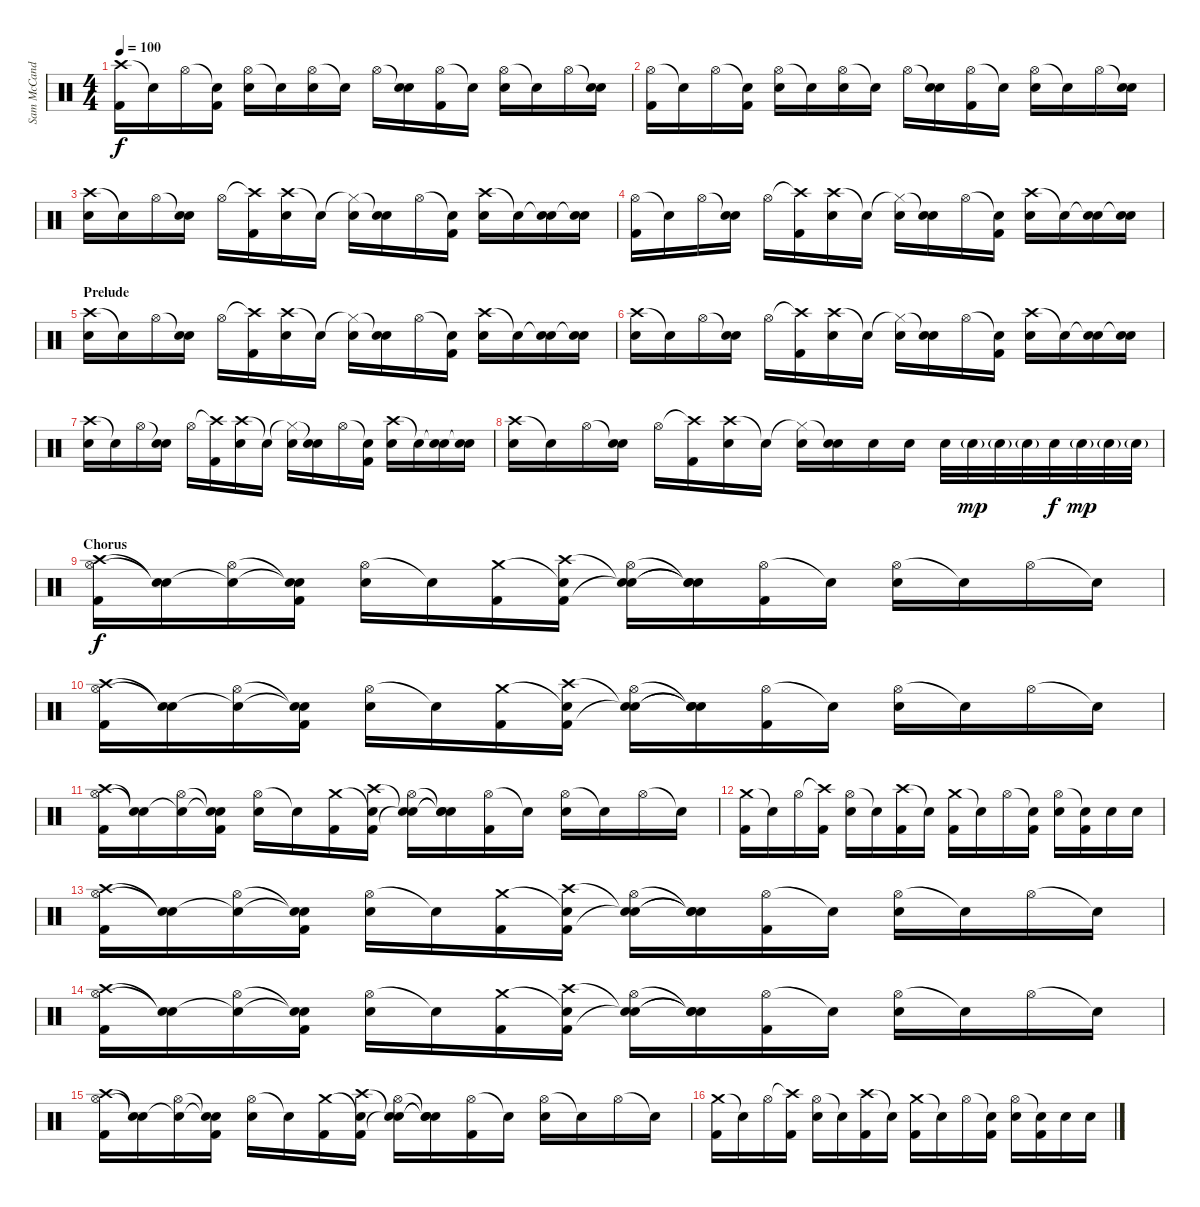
\track ("Sam McCandless (Drums)" "Sam McCand") {instrument percussion}
\staff {score}
\articulation defaults
\ts (4 4)
\tempo 100
\clef neutral
\ks c
("Crash high (hit)" "Kick (hit) 2").16{dy f} "Snare (hit)"{t}.16 "Hi-Hat (open)".16 ("Snare (hit)"{t} "Kick (hit) 2").16 ("Hi-Hat (open)" "Electric Snare (hit)").16 "Snare (hit)"{t}.16 ("Hi-Hat (open)" "Electric Snare (hit)").16 "Snare (hit)"{t}.16 "Hi-Hat (open)".16 ("Snare (hit)"{t} "Electric Snare (hit)").16 ("Hi-Hat (open)" "Kick (hit) 2").16 "Snare (hit)"{t}.16 ("Hi-Hat (open)" "Electric Snare (hit)").16 "Snare (hit)"{t}.16 "Hi-Hat (open)".16 ("Snare (hit)"{t} "Electric Snare (hit)").16 |
("Hi-Hat (open)" "Kick (hit) 2").16 "Snare (hit)"{t}.16 "Hi-Hat (open)".16 ("Snare (hit)"{t} "Kick (hit) 2").16 ("Hi-Hat (open)" "Electric Snare (hit)").16 "Snare (hit)"{t}.16 ("Hi-Hat (open)" "Electric Snare (hit)").16 "Snare (hit)"{t}.16 "Hi-Hat (open)".16 ("Snare (hit)"{t} "Electric Snare (hit)").16 ("Hi-Hat (open)" "Kick (hit) 2").16 "Snare (hit)"{t}.16 ("Hi-Hat (open)" "Electric Snare (hit)").16 "Snare (hit)"{t}.16 "Hi-Hat (open)".16 ("Snare (hit)"{t} "Electric Snare (hit)").16 |
("Crash high (hit)" "Electric Snare (hit)").16 "Snare (hit)"{t}.16 "Hi-Hat (open)".16 ("Snare (hit)"{t} "Electric Snare (hit)").16 "Hi-Hat (open)".16 ("Crash high (hit)"{t} "Kick (hit) 2").16 ("Crash high (hit)" "Electric Snare (hit)").16 "Snare (hit)"{t}.16 ("Hi-Hat (closed)"{t} "Electric Snare (hit)").16 ("Snare (hit)"{t} "Electric Snare (hit)").16 "Hi-Hat (open)".16 ("Snare (hit)"{t} "Kick (hit) 2").16 ("Crash high (hit)" "Electric Snare (hit)").16 "Snare (hit)"{t}.16 ("Snare (hit)"{t} "Electric Snare (hit)").16 ("Snare (hit)"{t} "Electric Snare (hit)").16 |
("Hi-Hat (open)" "Kick (hit) 2").16 "Snare (hit)"{t}.16 "Hi-Hat (open)".16 ("Snare (hit)"{t} "Electric Snare (hit)").16 "Hi-Hat (open)".16 ("Crash high (hit)"{t} "Kick (hit) 2").16 ("Crash high (hit)" "Electric Snare (hit)").16 "Snare (hit)"{t}.16 ("Hi-Hat (closed)"{t} "Electric Snare (hit)").16 ("Snare (hit)"{t} "Electric Snare (hit)").16 "Hi-Hat (open)".16 ("Snare (hit)"{t} "Kick (hit) 2").16 ("Crash high (hit)" "Electric Snare (hit)").16 "Snare (hit)"{t}.16 ("Snare (hit)"{t} "Electric Snare (hit)").16 ("Snare (hit)"{t} "Electric Snare (hit)").16 |
\section ("" "Prelude")
("Crash high (hit)" "Electric Snare (hit)").16 "Snare (hit)"{t}.16 "Hi-Hat (open)".16 ("Snare (hit)"{t} "Electric Snare (hit)").16 "Hi-Hat (open)".16 ("Crash high (hit)"{t} "Kick (hit) 2").16 ("Crash high (hit)" "Electric Snare (hit)").16 "Snare (hit)"{t}.16 ("Hi-Hat (closed)"{t} "Electric Snare (hit)").16 ("Snare (hit)"{t} "Electric Snare (hit)").16 "Hi-Hat (open)".16 ("Snare (hit)"{t} "Kick (hit) 2").16 ("Crash high (hit)" "Electric Snare (hit)").16 "Snare (hit)"{t}.16 ("Snare (hit)"{t} "Electric Snare (hit)").16 ("Snare (hit)"{t} "Electric Snare (hit)").16 |
("Crash high (hit)" "Electric Snare (hit)").16 "Snare (hit)"{t}.16 "Hi-Hat (open)".16 ("Snare (hit)"{t} "Electric Snare (hit)").16 "Hi-Hat (open)".16 ("Crash high (hit)"{t} "Kick (hit) 2").16 ("Crash high (hit)" "Electric Snare (hit)").16 "Snare (hit)"{t}.16 ("Hi-Hat (closed)"{t} "Electric Snare (hit)").16 ("Snare (hit)"{t} "Electric Snare (hit)").16 "Hi-Hat (open)".16 ("Snare (hit)"{t} "Kick (hit) 2").16 ("Crash high (hit)" "Electric Snare (hit)").16 "Snare (hit)"{t}.16 ("Snare (hit)"{t} "Electric Snare (hit)").16 ("Snare (hit)"{t} "Electric Snare (hit)").16 |
("Crash high (hit)" "Electric Snare (hit)").16 "Snare (hit)"{t}.16 "Hi-Hat (open)".16 ("Snare (hit)"{t} "Electric Snare (hit)").16 "Hi-Hat (open)".16 ("Crash high (hit)"{t} "Kick (hit) 2").16 ("Crash high (hit)" "Electric Snare (hit)").16 "Snare (hit)"{t}.16 ("Hi-Hat (closed)"{t} "Electric Snare (hit)").16 ("Snare (hit)"{t} "Electric Snare (hit)").16 "Hi-Hat (open)".16 ("Snare (hit)"{t} "Kick (hit) 2").16 ("Crash high (hit)" "Electric Snare (hit)").16 "Snare (hit)"{t}.16 ("Snare (hit)"{t} "Electric Snare (hit)").16 ("Snare (hit)"{t} "Electric Snare (hit)").16 |
("Crash high (hit)" "Electric Snare (hit)").16 "Snare (hit)"{t}.16 "Hi-Hat (open)".16 ("Snare (hit)"{t} "Electric Snare (hit)").16 "Hi-Hat (open)".16 ("Crash high (hit)"{t} "Kick (hit) 2").16 ("Crash high (hit)" "Electric Snare (hit)").16 "Snare (hit)"{t}.16 ("Hi-Hat (closed)"{t} "Electric Snare (hit)").16 ("Snare (hit)"{t} "Electric Snare (hit)").16 "Electric Snare (hit)".16 "Electric Snare (hit)".16 "Electric Snare (hit)".32 "Electric Snare (hit)"{g}.32{dy mp} "Electric Snare (hit)"{g}.32 "Electric Snare (hit)"{g}.32 "Electric Snare (hit)".32{dy f} "Electric Snare (hit)"{g}.32{dy mp} "Electric Snare (hit)"{g}.32 "Electric Snare (hit)"{g}.32 |
\section ("" "Chorus")
("Hi-Hat (open)" "Crash high (hit)" "Kick (hit) 2").16{dy f} ("Snare (hit)"{t} "Snare (hit)"{t}).16 ("Hi-Hat (open)" "Snare (hit)"{t}).16 ("Snare (hit)"{t} "Snare (hit)"{t} "Kick (hit) 2").16 ("Hi-Hat (open)" "Electric Snare (hit)").16 "Snare (hit)"{t}.16 ("Crash medium (hit)" "Kick (hit) 2").16 ("Snare (hit)"{t} "Crash high (hit)" "Kick (hit) 2").16 ("Hi-Hat (open)" "Snare (hit)"{t} "Snare (hit)"{t}).16 ("Snare (hit)"{t} "Snare (hit)"{t} "Snare (hit)"{t}).16 ("Hi-Hat (open)" "Kick (hit) 2").16 "Snare (hit)"{t}.16 ("Hi-Hat (open)" "Electric Snare (hit)").16 "Snare (hit)"{t}.16 "Hi-Hat (open)".16 "Snare (hit)"{t}.16 |
("Hi-Hat (open)" "Crash high (hit)" "Kick (hit) 2").16 ("Snare (hit)"{t} "Snare (hit)"{t}).16 ("Hi-Hat (open)" "Snare (hit)"{t}).16 ("Snare (hit)"{t} "Snare (hit)"{t} "Kick (hit) 2").16 ("Hi-Hat (open)" "Electric Snare (hit)").16 "Snare (hit)"{t}.16 ("Crash medium (hit)" "Kick (hit) 2").16 ("Snare (hit)"{t} "Crash high (hit)" "Kick (hit) 2").16 ("Hi-Hat (open)" "Snare (hit)"{t} "Snare (hit)"{t}).16 ("Snare (hit)"{t} "Snare (hit)"{t} "Snare (hit)"{t}).16 ("Hi-Hat (open)" "Kick (hit) 2").16 "Snare (hit)"{t}.16 ("Hi-Hat (open)" "Electric Snare (hit)").16 "Snare (hit)"{t}.16 "Hi-Hat (open)".16 "Snare (hit)"{t}.16 |
("Hi-Hat (open)" "Crash high (hit)" "Kick (hit) 2").16 ("Snare (hit)"{t} "Snare (hit)"{t}).16 ("Hi-Hat (open)" "Snare (hit)"{t}).16 ("Snare (hit)"{t} "Snare (hit)"{t} "Kick (hit) 2").16 ("Hi-Hat (open)" "Electric Snare (hit)").16 "Snare (hit)"{t}.16 ("Crash medium (hit)" "Kick (hit) 2").16 ("Snare (hit)"{t} "Crash high (hit)" "Kick (hit) 2").16 ("Hi-Hat (open)" "Snare (hit)"{t} "Snare (hit)"{t}).16 ("Snare (hit)"{t} "Snare (hit)"{t} "Snare (hit)"{t}).16 ("Hi-Hat (open)" "Kick (hit) 2").16 "Snare (hit)"{t}.16 ("Hi-Hat (open)" "Electric Snare (hit)").16 "Snare (hit)"{t}.16 "Hi-Hat (open)".16 "Snare (hit)"{t}.16 |
("Crash medium (hit)" "Kick (hit) 2").16 "Snare (hit)"{t}.16 "Hi-Hat (open)".16 ("Crash high (hit)"{t} "Kick (hit) 2").16 ("Hi-Hat (open)" "Electric Snare (hit)").16 "Snare (hit)"{t}.16 ("Crash high (hit)" "Kick (hit) 2").16 "Snare (hit)"{t}.16 ("Crash medium (hit)" "Kick (hit) 2").16 "Snare (hit)"{t}.16 "Hi-Hat (open)".16 ("Snare (hit)"{t} "Kick (hit) 2").16 ("Hi-Hat (open)" "Electric Snare (hit)").16 ("Snare (hit)"{t} "Kick (hit) 2").16 "Electric Snare (hit)".16 "Electric Snare (hit)".16 |
("Hi-Hat (open)" "Crash high (hit)" "Kick (hit) 2").16 ("Snare (hit)"{t} "Snare (hit)"{t}).16 ("Hi-Hat (open)" "Snare (hit)"{t}).16 ("Snare (hit)"{t} "Snare (hit)"{t} "Kick (hit) 2").16 ("Hi-Hat (open)" "Electric Snare (hit)").16 "Snare (hit)"{t}.16 ("Crash medium (hit)" "Kick (hit) 2").16 ("Snare (hit)"{t} "Crash high (hit)" "Kick (hit) 2").16 ("Hi-Hat (open)" "Snare (hit)"{t} "Snare (hit)"{t}).16 ("Snare (hit)"{t} "Snare (hit)"{t} "Snare (hit)"{t}).16 ("Hi-Hat (open)" "Kick (hit) 2").16 "Snare (hit)"{t}.16 ("Hi-Hat (open)" "Electric Snare (hit)").16 "Snare (hit)"{t}.16 "Hi-Hat (open)".16 "Snare (hit)"{t}.16 |
("Hi-Hat (open)" "Crash high (hit)" "Kick (hit) 2").16 ("Snare (hit)"{t} "Snare (hit)"{t}).16 ("Hi-Hat (open)" "Snare (hit)"{t}).16 ("Snare (hit)"{t} "Snare (hit)"{t} "Kick (hit) 2").16 ("Hi-Hat (open)" "Electric Snare (hit)").16 "Snare (hit)"{t}.16 ("Crash medium (hit)" "Kick (hit) 2").16 ("Snare (hit)"{t} "Crash high (hit)" "Kick (hit) 2").16 ("Hi-Hat (open)" "Snare (hit)"{t} "Snare (hit)"{t}).16 ("Snare (hit)"{t} "Snare (hit)"{t} "Snare (hit)"{t}).16 ("Hi-Hat (open)" "Kick (hit) 2").16 "Snare (hit)"{t}.16 ("Hi-Hat (open)" "Electric Snare (hit)").16 "Snare (hit)"{t}.16 "Hi-Hat (open)".16 "Snare (hit)"{t}.16 |
("Hi-Hat (open)" "Crash high (hit)" "Kick (hit) 2").16 ("Snare (hit)"{t} "Snare (hit)"{t}).16 ("Hi-Hat (open)" "Snare (hit)"{t}).16 ("Snare (hit)"{t} "Snare (hit)"{t} "Kick (hit) 2").16 ("Hi-Hat (open)" "Electric Snare (hit)").16 "Snare (hit)"{t}.16 ("Crash medium (hit)" "Kick (hit) 2").16 ("Snare (hit)"{t} "Crash high (hit)" "Kick (hit) 2").16 ("Hi-Hat (open)" "Snare (hit)"{t} "Snare (hit)"{t}).16 ("Snare (hit)"{t} "Snare (hit)"{t} "Snare (hit)"{t}).16 ("Hi-Hat (open)" "Kick (hit) 2").16 "Snare (hit)"{t}.16 ("Hi-Hat (open)" "Electric Snare (hit)").16 "Snare (hit)"{t}.16 "Hi-Hat (open)".16 "Snare (hit)"{t}.16 |
("Crash medium (hit)" "Kick (hit) 2").16 "Snare (hit)"{t}.16 "Hi-Hat (open)".16 ("Crash high (hit)"{t} "Kick (hit) 2").16 ("Hi-Hat (open)" "Electric Snare (hit)").16 "Snare (hit)"{t}.16 ("Crash high (hit)" "Kick (hit) 2").16 "Snare (hit)"{t}.16 ("Crash medium (hit)" "Kick (hit) 2").16 "Snare (hit)"{t}.16 "Hi-Hat (open)".16 ("Snare (hit)"{t} "Kick (hit) 2").16 ("Hi-Hat (open)" "Electric Snare (hit)").16 ("Snare (hit)"{t} "Kick (hit) 2").16 "Electric Snare (hit)".16 "Electric Snare (hit)".16
